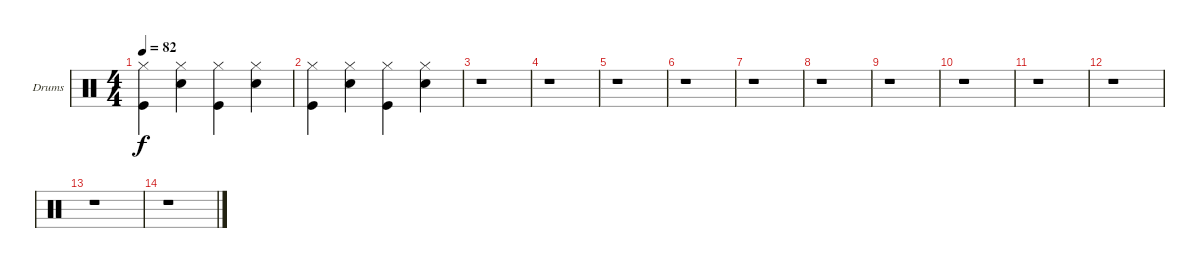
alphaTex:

\bracketExtendMode groupsimilarinstruments
\firstSystemTrackNameOrientation horizontal
\otherSystemsTrackNameOrientation horizontal
\track ("Drumkit" "Drums") {instrument percussion}
\staff {score}
\articulation defaults
\ts (4 4)
\tempo 82
\clef neutral
\ks c
("Hi-Hat (closed)" "Kick (hit)").4{dy f} ("Hi-Hat (closed)" "Snare (hit) 2").4 ("Hi-Hat (closed)" "Kick (hit)").4 ("Hi-Hat (closed)" "Snare (hit) 2").4 |
("Hi-Hat (closed)" "Kick (hit)").4 ("Hi-Hat (closed)" "Snare (hit) 2").4 ("Hi-Hat (closed)" "Kick (hit)").4 ("Hi-Hat (closed)" "Snare (hit) 2").4 |
r.1 |
r.1 |
r.1 |
r.1 |
r.1 |
r.1 |
r.1 |
r.1 |
r.1 |
r.1 |
r.1 |
r.1
